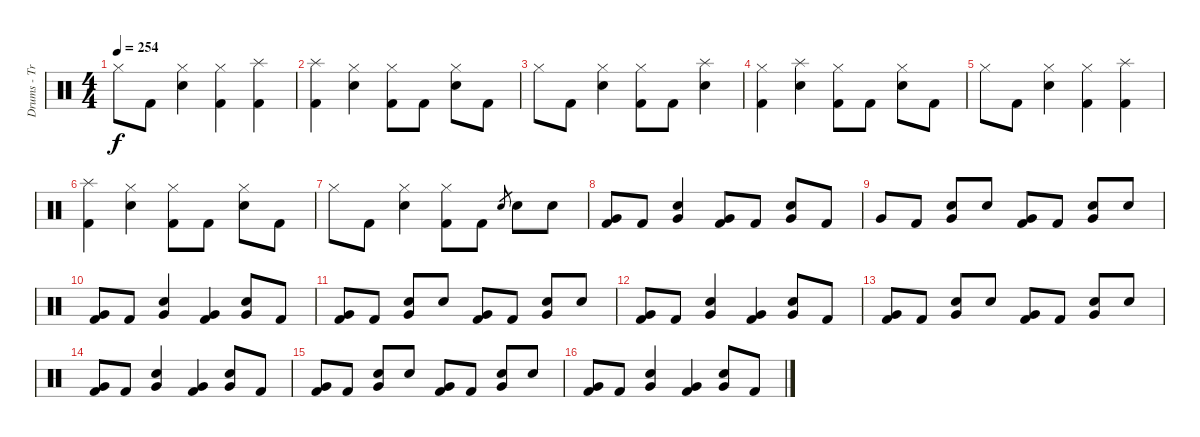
\track ("Drums - Travis Barker" "Drums - Tr") {instrument percussion}
\staff {score}
\articulation defaults
\ts (4 4)
\tempo 254
\clef neutral
\ks c "Hi-Hat (closed)".8{dy f} "Kick (hit) 2".8
("Hi-Hat (closed)" "Electric Snare (hit)").4 ("Hi-Hat (closed)" "Kick (hit) 2").4 ("Splash (hit)" "Kick (hit) 2").4 |
("Splash (hit)" "Kick (hit) 2").4 ("Hi-Hat (closed)" "Electric Snare (hit)").4 ("Hi-Hat (closed)" "Kick (hit) 2").8 "Kick (hit) 2".8 ("Hi-Hat (closed)" "Electric Snare (hit)").8 "Kick (hit) 2".8 |
"Hi-Hat (closed)".8 "Kick (hit) 2".8 ("Hi-Hat (closed)" "Electric Snare (hit)").4 ("Hi-Hat (closed)" "Kick (hit) 2").8 "Kick (hit) 2".8 ("Splash (hit)" "Electric Snare (hit)").4 |
("Hi-Hat (closed)" "Kick (hit) 2").4 ("Splash (hit)" "Electric Snare (hit)").4 ("Hi-Hat (closed)" "Kick (hit) 2").8 "Kick (hit) 2".8 ("Hi-Hat (closed)" "Electric Snare (hit)").8 "Kick (hit) 2".8 |
"Hi-Hat (closed)".8 "Kick (hit) 2".8 ("Hi-Hat (closed)" "Electric Snare (hit)").4 ("Hi-Hat (closed)" "Kick (hit) 2").4 ("Splash (hit)" "Kick (hit) 2").4 |
("Splash (hit)" "Kick (hit) 2").4 ("Hi-Hat (closed)" "Electric Snare (hit)").4 ("Hi-Hat (closed)" "Kick (hit) 2").8 "Kick (hit) 2".8 ("Hi-Hat (closed)" "Electric Snare (hit)").8 "Kick (hit) 2".8 |
"Hi-Hat (closed)".8 "Kick (hit) 2".8 ("Hi-Hat (closed)" "Electric Snare (hit)").4 ("Hi-Hat (closed)" "Kick (hit) 2").8 "Kick (hit) 2".8 "Electric Snare (hit)".8{gr} "Electric Snare (hit)".8 "Electric Snare (hit)".8 |
("Very Low Tom (hit)" "Kick (hit) 2").8 "Kick (hit) 2".8 ("Very Low Tom (hit)" "Electric Snare (hit)").4 ("Very Low Tom (hit)" "Kick (hit) 2").8 "Kick (hit) 2".8 ("Very Low Tom (hit)" "Electric Snare (hit)").8 "Kick (hit) 2".8 |
"Very Low Tom (hit)".8 "Kick (hit) 2".8 ("Very Low Tom (hit)" "Electric Snare (hit)").8 "Electric Snare (hit)".8 ("Very Low Tom (hit)" "Kick (hit) 2").8 "Kick (hit) 2".8 ("Very Low Tom (hit)" "Electric Snare (hit)").8 "Electric Snare (hit)".8 |
("Very Low Tom (hit)" "Kick (hit) 2").8 "Kick (hit) 2".8 ("Very Low Tom (hit)" "Electric Snare (hit)").4 ("Very Low Tom (hit)" "Kick (hit) 2").4 ("Very Low Tom (hit)" "Electric Snare (hit)").8 "Kick (hit) 2".8 |
("Very Low Tom (hit)" "Kick (hit) 2").8 "Kick (hit) 2".8 ("Very Low Tom (hit)" "Electric Snare (hit)").8 "Electric Snare (hit)".8 ("Very Low Tom (hit)" "Kick (hit) 2").8 "Kick (hit) 2".8 ("Very Low Tom (hit)" "Electric Snare (hit)").8 "Electric Snare (hit)".8 |
("Very Low Tom (hit)" "Kick (hit) 2").8 "Kick (hit) 2".8 ("Very Low Tom (hit)" "Electric Snare (hit)").4 ("Very Low Tom (hit)" "Kick (hit) 2").4 ("Very Low Tom (hit)" "Electric Snare (hit)").8 "Kick (hit) 2".8 |
("Very Low Tom (hit)" "Kick (hit) 2").8 "Kick (hit) 2".8 ("Very Low Tom (hit)" "Electric Snare (hit)").8 "Electric Snare (hit)".8 ("Very Low Tom (hit)" "Kick (hit) 2").8 "Kick (hit) 2".8 ("Very Low Tom (hit)" "Electric Snare (hit)").8 "Electric Snare (hit)".8 |
("Very Low Tom (hit)" "Kick (hit) 2").8 "Kick (hit) 2".8 ("Very Low Tom (hit)" "Electric Snare (hit)").4 ("Very Low Tom (hit)" "Kick (hit) 2").4 ("Very Low Tom (hit)" "Electric Snare (hit)").8 "Kick (hit) 2".8 |
("Very Low Tom (hit)" "Kick (hit) 2").8 "Kick (hit) 2".8 ("Very Low Tom (hit)" "Electric Snare (hit)").8 "Electric Snare (hit)".8 ("Very Low Tom (hit)" "Kick (hit) 2").8 "Kick (hit) 2".8 ("Very Low Tom (hit)" "Electric Snare (hit)").8 "Electric Snare (hit)".8 |
("Very Low Tom (hit)" "Kick (hit) 2").8 "Kick (hit) 2".8 ("Very Low Tom (hit)" "Electric Snare (hit)").4 ("Very Low Tom (hit)" "Kick (hit) 2").4 ("Very Low Tom (hit)" "Electric Snare (hit)").8 "Kick (hit) 2".8
